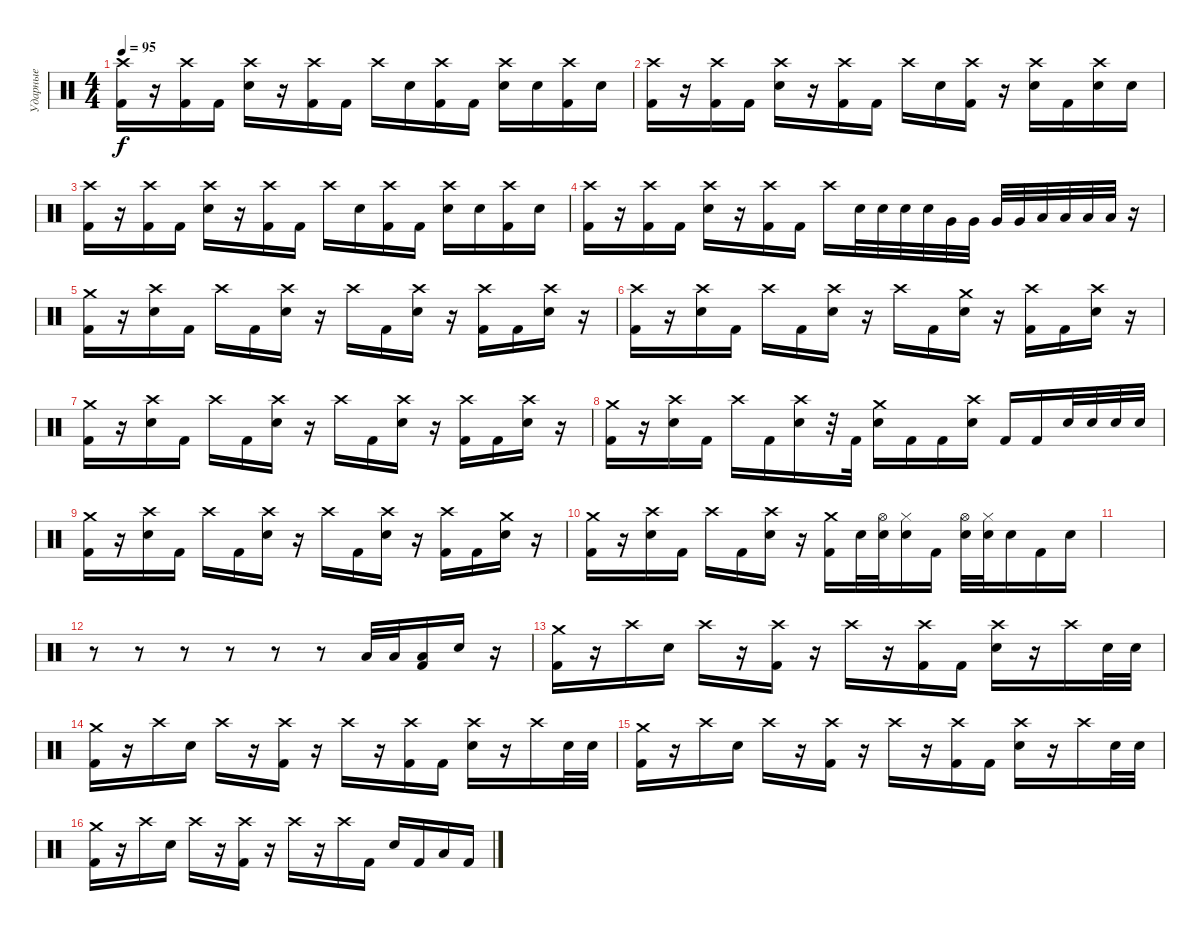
\track ("Ударные" "Ударные") {instrument percussion}
\staff {score}
\articulation defaults
\ts (4 4)
\tempo 95
\clef neutral
\ks c
("Crash high (hit)" "Kick (hit) 2").16{dy f} r.16 ("Crash high (hit)" "Kick (hit) 2").16 "Kick (hit) 2".16 ("Crash high (hit)" "Electric Snare (hit)").16 r.16 ("Crash high (hit)" "Kick (hit) 2").16 "Kick (hit) 2".16 "Crash high (hit)".16 "Electric Snare (hit)".16 ("Crash high (hit)" "Kick (hit) 2").16 "Kick (hit) 2".16 ("Crash high (hit)" "Electric Snare (hit)").16 "Electric Snare (hit)".16 ("Crash high (hit)" "Kick (hit) 2").16 "Electric Snare (hit)".16 |
("Crash high (hit)" "Kick (hit) 2").16 r.16 ("Crash high (hit)" "Kick (hit) 2").16 "Kick (hit) 2".16 ("Crash high (hit)" "Electric Snare (hit)").16 r.16 ("Crash high (hit)" "Kick (hit) 2").16 "Kick (hit) 2".16 "Crash high (hit)".16 "Electric Snare (hit)".16 ("Crash high (hit)" "Kick (hit) 2").16 r.16 ("Crash high (hit)" "Electric Snare (hit)").16 "Kick (hit) 2".16 ("Crash high (hit)" "Electric Snare (hit)").16 "Electric Snare (hit)".16 |
("Crash high (hit)" "Kick (hit) 2").16 r.16 ("Crash high (hit)" "Kick (hit) 2").16 "Kick (hit) 2".16 ("Crash high (hit)" "Electric Snare (hit)").16 r.16 ("Crash high (hit)" "Kick (hit) 2").16 "Kick (hit) 2".16 "Crash high (hit)".16 "Electric Snare (hit)".16 ("Crash high (hit)" "Kick (hit) 2").16 "Kick (hit) 2".16 ("Crash high (hit)" "Electric Snare (hit)").16 "Electric Snare (hit)".16 ("Crash high (hit)" "Kick (hit) 2").16 "Electric Snare (hit)".16 |
("Crash high (hit)" "Kick (hit) 2").16 r.16 ("Crash high (hit)" "Kick (hit) 2").16 "Kick (hit) 2".16 ("Crash high (hit)" "Electric Snare (hit)").16 r.16 ("Crash high (hit)" "Kick (hit) 2").16 "Kick (hit) 2".16 "Crash high (hit)".16 "Electric Snare (hit)".32 "Electric Snare (hit)".32 "Electric Snare (hit)".32 "Electric Snare (hit)".32 "Very Low Tom (hit)".32 "Very Low Tom (hit)".32 "Very Low Tom (hit)".32 "Very Low Tom (hit)".32 "Low Floor Tom (hit)".32 "Low Floor Tom (hit)".32 "Low Floor Tom (hit)".32 "Low Floor Tom (hit)".32 r.16 |
("Crash medium (hit)" "Kick (hit) 2").16 r.16 ("Crash high (hit)" "Electric Snare (hit)").16 "Kick (hit) 2".16 "Crash high (hit)".16 "Kick (hit) 2".16 ("Crash high (hit)" "Electric Snare (hit)").16 r.16 "Crash high (hit)".16 "Kick (hit) 2".16 ("Crash high (hit)" "Electric Snare (hit)").16 r.16 ("Crash high (hit)" "Kick (hit) 2").16 "Kick (hit) 2".16 ("Crash high (hit)" "Electric Snare (hit)").16 r.16 |
("Crash high (hit)" "Kick (hit) 2").16 r.16 ("Crash high (hit)" "Electric Snare (hit)").16 "Kick (hit) 2".16 "Crash high (hit)".16 "Kick (hit) 2".16 ("Crash high (hit)" "Electric Snare (hit)").16 r.16 "Crash high (hit)".16 "Kick (hit) 2".16 ("Crash medium (hit)" "Electric Snare (hit)").16 r.16 ("Crash high (hit)" "Kick (hit) 2").16 "Kick (hit) 2".16 ("Crash high (hit)" "Electric Snare (hit)").16 r.16 |
("Crash medium (hit)" "Kick (hit) 2").16 r.16 ("Crash high (hit)" "Electric Snare (hit)").16 "Kick (hit) 2".16 "Crash high (hit)".16 "Kick (hit) 2".16 ("Crash high (hit)" "Electric Snare (hit)").16 r.16 "Crash high (hit)".16 "Kick (hit) 2".16 ("Crash high (hit)" "Electric Snare (hit)").16 r.16 ("Crash high (hit)" "Kick (hit) 2").16 "Kick (hit) 2".16 ("Crash high (hit)" "Electric Snare (hit)").16 r.16 |
("Crash medium (hit)" "Kick (hit) 2").16 r.16 ("Crash high (hit)" "Electric Snare (hit)").16 "Kick (hit) 2".16 "Crash high (hit)".16 "Kick (hit) 2".16 ("Crash high (hit)" "Electric Snare (hit)").16 r.32 "Kick (hit) 2".32 ("Crash medium (hit)" "Electric Snare (hit)").16 "Kick (hit) 2".16 "Kick (hit) 2".16 ("Crash high (hit)" "Electric Snare (hit)").16 "Kick (hit) 2".16 "Kick (hit) 2".16 "Electric Snare (hit)".32 "Electric Snare (hit)".32 "Electric Snare (hit)".32 "Electric Snare (hit)".32 |
("Crash medium (hit)" "Kick (hit) 2").16 r.16 ("Crash high (hit)" "Electric Snare (hit)").16 "Kick (hit) 2".16 "Crash high (hit)".16 "Kick (hit) 2".16 ("Crash high (hit)" "Electric Snare (hit)").16 r.16 "Crash high (hit)".16 "Kick (hit) 2".16 ("Crash high (hit)" "Electric Snare (hit)").16 r.16 ("Crash high (hit)" "Kick (hit) 2").16 "Kick (hit) 2".16 ("Crash medium (hit)" "Electric Snare (hit)").16 r.16 |
("Crash medium (hit)" "Kick (hit) 2").16 r.16 ("Crash high (hit)" "Electric Snare (hit)").16 "Kick (hit) 2".16 "Crash high (hit)".16 "Kick (hit) 2".16 ("Crash high (hit)" "Electric Snare (hit)").16 r.16 ("Crash medium (hit)" "Kick (hit) 2").16 "Electric Snare (hit)".32 ("Hi-Hat (open)" "Electric Snare (hit)").32 ("Hi-Hat (closed)" "Electric Snare (hit)").16 "Kick (hit) 2".16 ("Hi-Hat (open)" "Electric Snare (hit)").32 ("Hi-Hat (closed)" "Electric Snare (hit)").32 "Electric Snare (hit)".16 "Kick (hit) 2".16 "Electric Snare (hit)".16 |
|
r.8 r.8 r.8 r.8 r.8 r.8 "Low Floor Tom (hit)".32 "Low Floor Tom (hit)".32 ("Low Floor Tom (hit)" "Kick (hit) 2").16 "Electric Snare (hit)".16 r.16 |
("Crash medium (hit)" "Kick (hit) 2").16 r.16 "Crash high (hit)".16 "Electric Snare (hit)".16 "Crash high (hit)".16 r.16 ("Crash high (hit)" "Kick (hit) 2").16 r.16 "Crash high (hit)".16 r.16 ("Crash high (hit)" "Kick (hit) 2").16 "Kick (hit) 2".16 ("Crash high (hit)" "Electric Snare (hit)").16 r.16 "Crash high (hit)".16 "Electric Snare (hit)".32 "Electric Snare (hit)".32 |
("Crash medium (hit)" "Kick (hit) 2").16 r.16 "Crash high (hit)".16 "Electric Snare (hit)".16 "Crash high (hit)".16 r.16 ("Crash high (hit)" "Kick (hit) 2").16 r.16 "Crash high (hit)".16 r.16 ("Crash high (hit)" "Kick (hit) 2").16 "Kick (hit) 2".16 ("Crash high (hit)" "Electric Snare (hit)").16 r.16 "Crash high (hit)".16 "Electric Snare (hit)".32 "Electric Snare (hit)".32 |
("Crash medium (hit)" "Kick (hit) 2").16 r.16 "Crash high (hit)".16 "Electric Snare (hit)".16 "Crash high (hit)".16 r.16 ("Crash high (hit)" "Kick (hit) 2").16 r.16 "Crash high (hit)".16 r.16 ("Crash high (hit)" "Kick (hit) 2").16 "Kick (hit) 2".16 ("Crash high (hit)" "Electric Snare (hit)").16 r.16 "Crash high (hit)".16 "Electric Snare (hit)".32 "Electric Snare (hit)".32 |
("Crash medium (hit)" "Kick (hit) 2").16 r.16 "Crash high (hit)".16 "Electric Snare (hit)".16 "Crash high (hit)".16 r.16 ("Crash high (hit)" "Kick (hit) 2").16 r.16 "Crash high (hit)".16 r.16 "Crash high (hit)".16 "Kick (hit) 2".16 "Electric Snare (hit)".16 "Kick (hit) 2".16 "Low Floor Tom (hit)".16 "Kick (hit) 2".16
